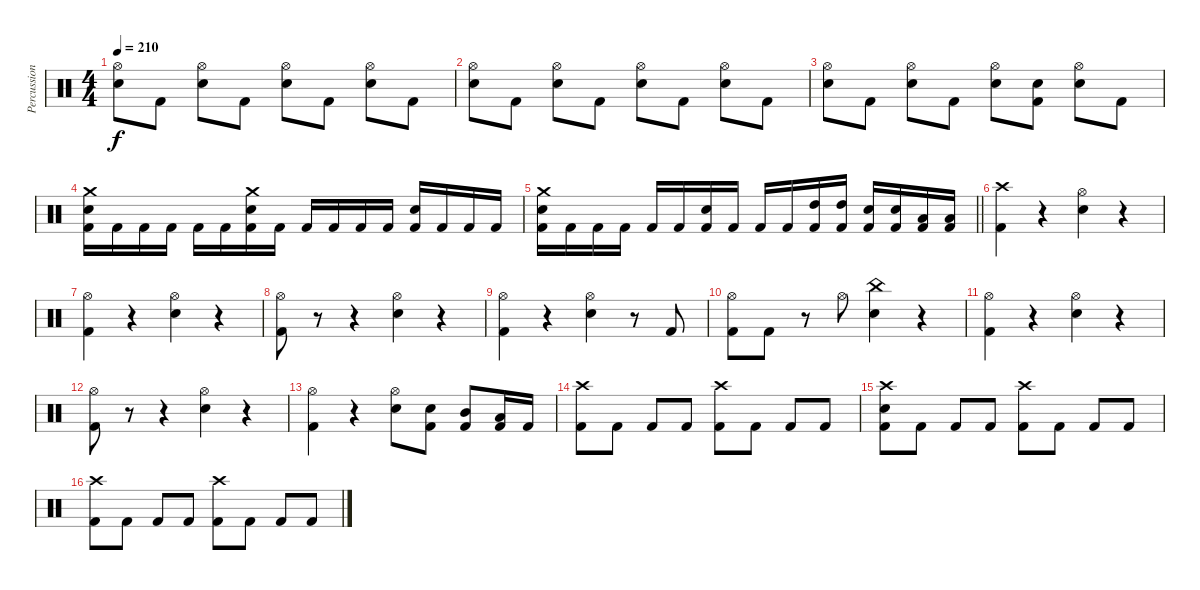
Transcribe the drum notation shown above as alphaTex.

\track ("Percussion" "Percussion") {instrument percussion}
\staff {score}
\articulation defaults
\ts (4 4)
\tempo 210
\clef neutral
\ks c
("Hi-Hat (open)" "Electric Snare (hit)").8{dy f} "Kick (hit) 2".8 ("Hi-Hat (open)" "Electric Snare (hit)").8 "Kick (hit) 2".8 ("Hi-Hat (open)" "Electric Snare (hit)").8 "Kick (hit) 2".8 ("Hi-Hat (open)" "Electric Snare (hit)").8 "Kick (hit) 2".8 |
("Hi-Hat (open)" "Electric Snare (hit)").8 "Kick (hit) 2".8 ("Hi-Hat (open)" "Electric Snare (hit)").8 "Kick (hit) 2".8 ("Hi-Hat (open)" "Electric Snare (hit)").8 "Kick (hit) 2".8 ("Hi-Hat (open)" "Electric Snare (hit)").8 "Kick (hit) 2".8 |
("Hi-Hat (open)" "Electric Snare (hit)").8 "Kick (hit) 2".8 ("Hi-Hat (open)" "Electric Snare (hit)").8 "Kick (hit) 2".8 ("Hi-Hat (open)" "Electric Snare (hit)").8 ("Electric Snare (hit)" "Kick (hit) 2").8 ("Hi-Hat (open)" "Electric Snare (hit)").8 "Kick (hit) 2".8 |
("Crash medium (hit)" "Electric Snare (hit)" "Kick (hit) 2").16 "Kick (hit) 2".16 "Kick (hit) 2".16 "Kick (hit) 2".16 "Kick (hit) 2".16 "Kick (hit) 2".16 ("Crash medium (hit)" "Electric Snare (hit)" "Kick (hit) 2").16 "Kick (hit) 2".16 "Kick (hit) 2".16 "Kick (hit) 2".16 "Kick (hit) 2".16 "Kick (hit) 2".16 ("Electric Snare (hit)" "Kick (hit) 2").16 "Kick (hit) 2".16 "Kick (hit) 2".16 "Kick (hit) 2".16 |
\barLineRight lightlight
("Crash medium (hit)" "Electric Snare (hit)" "Kick (hit) 2").16 "Kick (hit) 2".16 "Kick (hit) 2".16 "Kick (hit) 2".16 "Kick (hit) 2".16 "Kick (hit) 2".16 ("Electric Snare (hit)" "Kick (hit) 2").16 "Kick (hit) 2".16 "Kick (hit) 2".16 "Kick (hit) 2".16 ("High Tom (hit)" "Kick (hit) 2").16 ("High Tom (hit)" "Kick (hit) 2").16 ("Electric Snare (hit)" "Kick (hit) 2").16 ("Electric Snare (hit)" "Kick (hit) 2").16 ("Low Tom (hit)" "Kick (hit) 2").16 ("Low Tom (hit)" "Kick (hit) 2").16 |
("Crash high (hit)" "Kick (hit) 2").4 r.4 ("Hi-Hat (open)" "Electric Snare (hit)").4 r.4 |
("Hi-Hat (open)" "Kick (hit) 2").4 r.4 ("Hi-Hat (open)" "Electric Snare (hit)").4 r.4 |
("Hi-Hat (open)" "Kick (hit) 2").8 r.8 r.4 ("Hi-Hat (open)" "Electric Snare (hit)").4 r.4 |
("Hi-Hat (open)" "Kick (hit) 2").4 r.4 ("Hi-Hat (open)" "Electric Snare (hit)").4 r.8 "Kick (hit) 2".8 |
("Hi-Hat (open)" "Kick (hit) 2").8 "Kick (hit) 2".8 r.8 "Hi-Hat (open)".8 ("China (hit)" "Electric Snare (hit)").4 r.4 |
("Hi-Hat (open)" "Kick (hit) 2").4 r.4 ("Hi-Hat (open)" "Electric Snare (hit)").4 r.4 |
("Hi-Hat (open)" "Kick (hit) 2").8 r.8 r.4 ("Hi-Hat (open)" "Electric Snare (hit)").4 r.4 |
("Hi-Hat (open)" "Kick (hit) 2").4 r.4 ("Hi-Hat (open)" "Electric Snare (hit)").8 ("Electric Snare (hit)" "Kick (hit) 2").8 ("Mid Tom (hit)" "Kick (hit) 2").8 ("Low Tom (hit)" "Kick (hit) 2").16 "Kick (hit) 2".16 |
("Crash high (hit)" "Kick (hit) 2").8 "Kick (hit) 2".8 "Kick (hit) 2".8 "Kick (hit) 2".8 ("Crash high (hit)" "Kick (hit) 2").8 "Kick (hit) 2".8 "Kick (hit) 2".8 "Kick (hit) 2".8 |
("Crash high (hit)" "Electric Snare (hit)" "Kick (hit) 2").8 "Kick (hit) 2".8 "Kick (hit) 2".8 "Kick (hit) 2".8 ("Crash high (hit)" "Kick (hit) 2").8 "Kick (hit) 2".8 "Kick (hit) 2".8 "Kick (hit) 2".8 |
("Crash high (hit)" "Kick (hit) 2").8 "Kick (hit) 2".8 "Kick (hit) 2".8 "Kick (hit) 2".8 ("Crash high (hit)" "Kick (hit) 2").8 "Kick (hit) 2".8 "Kick (hit) 2".8 "Kick (hit) 2".8
